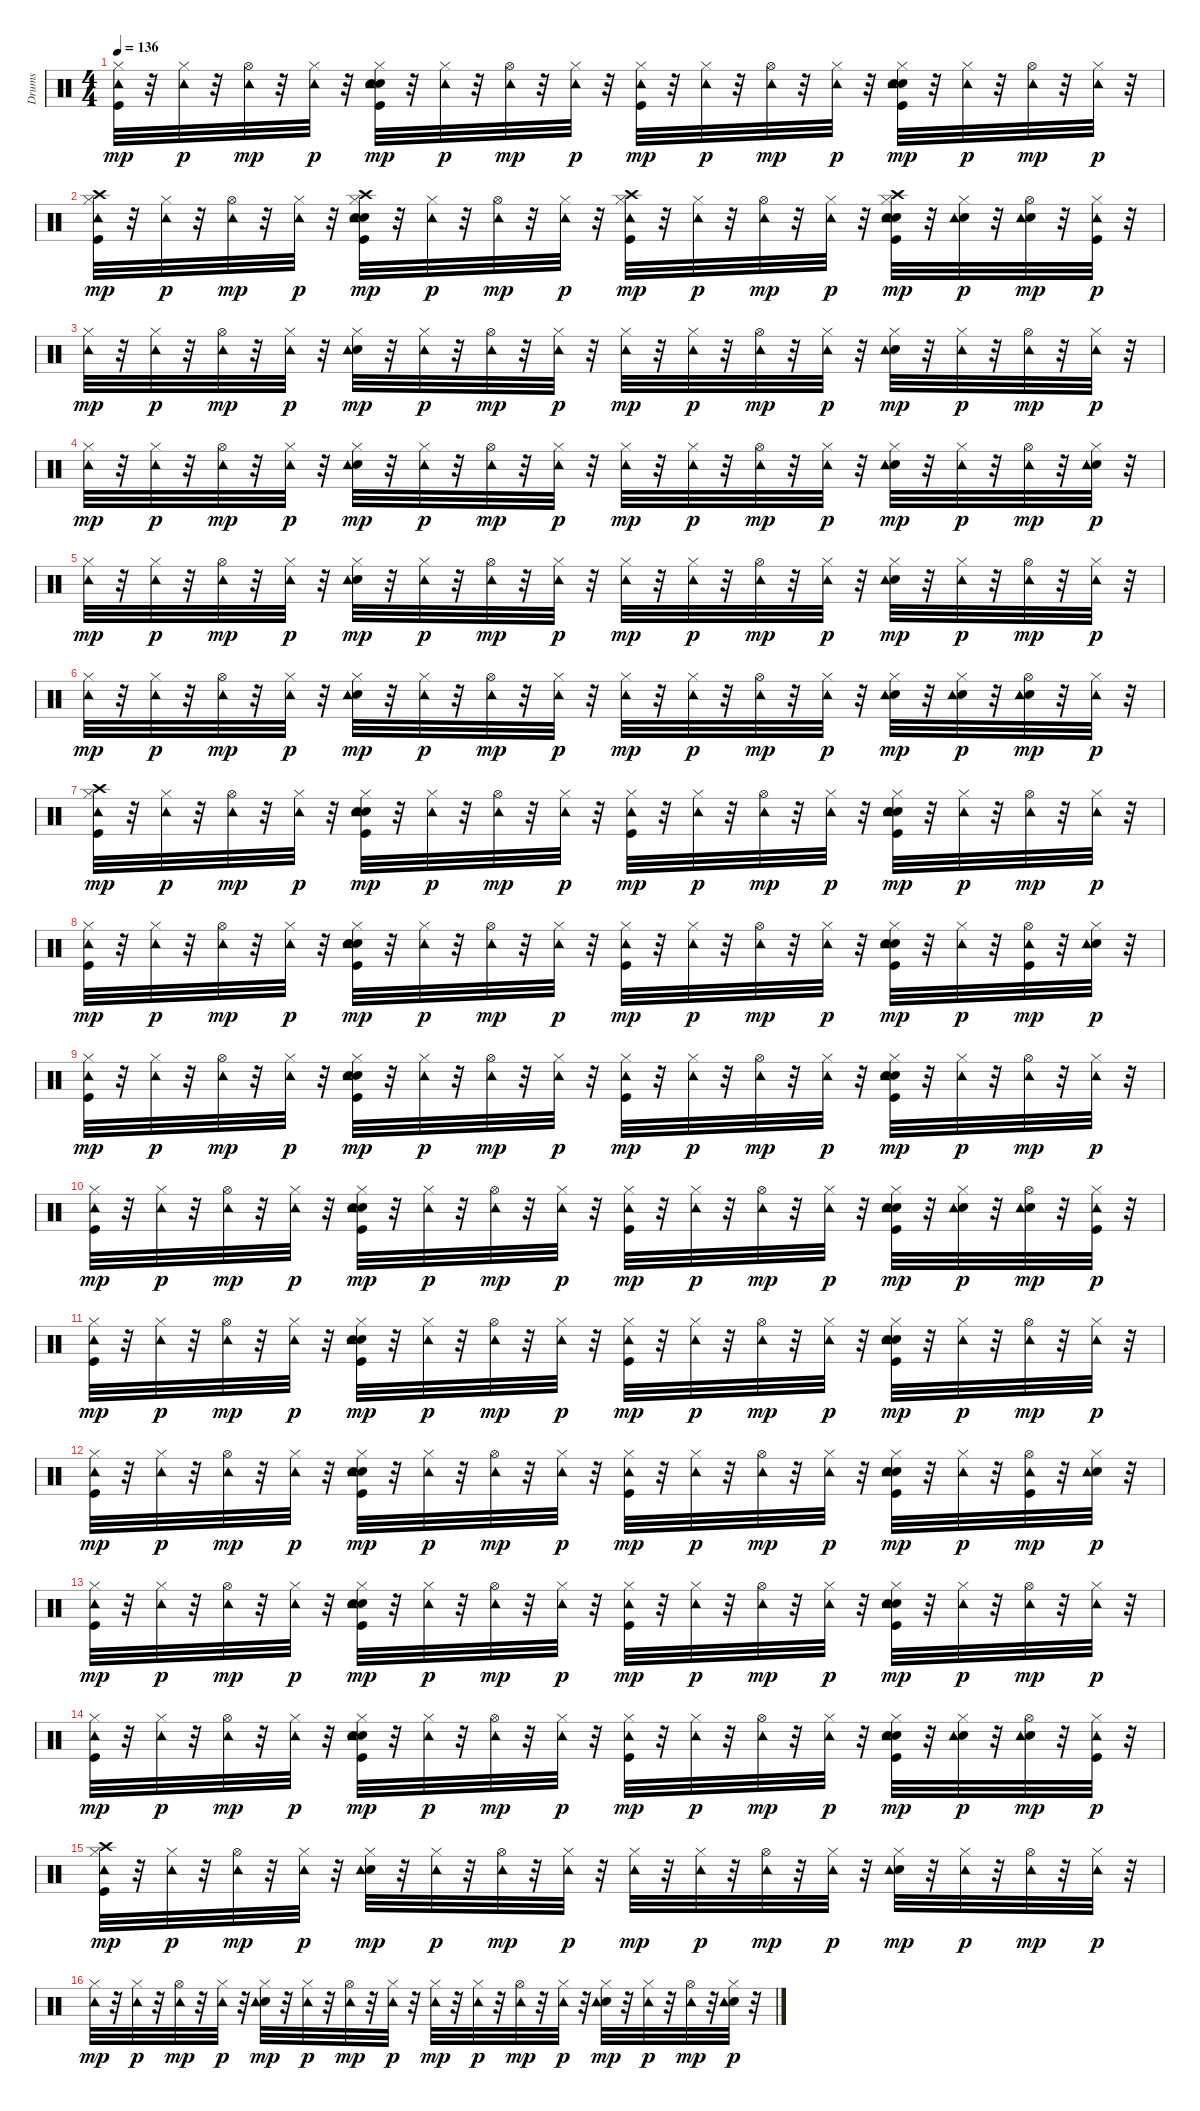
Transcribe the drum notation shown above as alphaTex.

\track ("Drums" "Drums") {instrument percussion}
\staff {score}
\articulation defaults
\ts (4 4)
\tempo 136
\clef neutral
\ks c
("Kick (hit)" "Hi-Hat (closed)" "Tambourine (hit)").32{dy mp} r.32 ("Hi-Hat (closed)" "Tambourine (hit)").32{dy p} r.32 ("Hi-Hat (open)" "Tambourine (hit)").32{dy mp} r.32 ("Hi-Hat (closed)" "Tambourine (hit)").32{dy p} r.32 ("Kick (hit)" "Snare (hit) 2" "Hand Clap (hit)" "Hi-Hat (closed)" "Tambourine (hit)").32{dy mp} r.32 ("Hi-Hat (closed)" "Tambourine (hit)").32{dy p} r.32 ("Hi-Hat (open)" "Tambourine (hit)").32{dy mp} r.32 ("Hi-Hat (closed)" "Tambourine (hit)").32{dy p} r.32 ("Kick (hit)" "Hi-Hat (closed)" "Tambourine (hit)").32{dy mp} r.32 ("Hi-Hat (closed)" "Tambourine (hit)").32{dy p} r.32 ("Hi-Hat (open)" "Tambourine (hit)").32{dy mp} r.32 ("Hi-Hat (closed)" "Tambourine (hit)").32{dy p} r.32 ("Kick (hit)" "Snare (hit) 2" "Hand Clap (hit)" "Hi-Hat (closed)" "Tambourine (hit)").32{dy mp} r.32 ("Hi-Hat (closed)" "Tambourine (hit)").32{dy p} r.32 ("Hi-Hat (open)" "Tambourine (hit)").32{dy mp} r.32 ("Hi-Hat (closed)" "Tambourine (hit)").32{dy p} r.32 |
("Kick (hit)" "Hi-Hat (closed)" "Crash high (hit)" "Tambourine (hit)").32{dy mp} r.32 ("Hi-Hat (closed)" "Tambourine (hit)").32{dy p} r.32 ("Hi-Hat (open)" "Tambourine (hit)").32{dy mp} r.32 ("Hi-Hat (closed)" "Tambourine (hit)").32{dy p} r.32 ("Kick (hit)" "Snare (hit) 2" "Hand Clap (hit)" "Hi-Hat (closed)" "Crash high (hit)" "Tambourine (hit)").32{dy mp} r.32 ("Hi-Hat (closed)" "Tambourine (hit)").32{dy p} r.32 ("Hi-Hat (open)" "Tambourine (hit)").32{dy mp} r.32 ("Hi-Hat (closed)" "Tambourine (hit)").32{dy p} r.32 ("Kick (hit)" "Hi-Hat (closed)" "Crash high (hit)" "Tambourine (hit)").32{dy mp} r.32 ("Hi-Hat (closed)" "Tambourine (hit)").32{dy p} r.32 ("Hi-Hat (open)" "Tambourine (hit)").32{dy mp} r.32 ("Hi-Hat (closed)" "Tambourine (hit)").32{dy p} r.32 ("Kick (hit)" "Snare (hit) 2" "Hand Clap (hit)" "Hi-Hat (closed)" "Crash high (hit)" "Tambourine (hit)").32{dy mp} r.32 ("Hand Clap (hit)" "Hi-Hat (closed)" "Tambourine (hit)").32{dy p} r.32 ("Hand Clap (hit)" "Hi-Hat (open)" "Tambourine (hit)").32{dy mp} r.32 ("Kick (hit)" "Hi-Hat (closed)" "Tambourine (hit)").32{dy p} r.32 |
("Hi-Hat (closed)" "Tambourine (hit)").32{dy mp} r.32 ("Hi-Hat (closed)" "Tambourine (hit)").32{dy p} r.32 ("Hi-Hat (open)" "Tambourine (hit)").32{dy mp} r.32 ("Hi-Hat (closed)" "Tambourine (hit)").32{dy p} r.32 ("Hand Clap (hit)" "Hi-Hat (closed)" "Tambourine (hit)").32{dy mp} r.32 ("Hi-Hat (closed)" "Tambourine (hit)").32{dy p} r.32 ("Hi-Hat (open)" "Tambourine (hit)").32{dy mp} r.32 ("Hi-Hat (closed)" "Tambourine (hit)").32{dy p} r.32 ("Hi-Hat (closed)" "Tambourine (hit)").32{dy mp} r.32 ("Hi-Hat (closed)" "Tambourine (hit)").32{dy p} r.32 ("Hi-Hat (open)" "Tambourine (hit)").32{dy mp} r.32 ("Hi-Hat (closed)" "Tambourine (hit)").32{dy p} r.32 ("Hand Clap (hit)" "Hi-Hat (closed)" "Tambourine (hit)").32{dy mp} r.32 ("Hi-Hat (closed)" "Tambourine (hit)").32{dy p} r.32 ("Hi-Hat (open)" "Tambourine (hit)").32{dy mp} r.32 ("Hi-Hat (closed)" "Tambourine (hit)").32{dy p} r.32 |
("Hi-Hat (closed)" "Tambourine (hit)").32{dy mp} r.32 ("Hi-Hat (closed)" "Tambourine (hit)").32{dy p} r.32 ("Hi-Hat (open)" "Tambourine (hit)").32{dy mp} r.32 ("Hi-Hat (closed)" "Tambourine (hit)").32{dy p} r.32 ("Hand Clap (hit)" "Hi-Hat (closed)" "Tambourine (hit)").32{dy mp} r.32 ("Hi-Hat (closed)" "Tambourine (hit)").32{dy p} r.32 ("Hi-Hat (open)" "Tambourine (hit)").32{dy mp} r.32 ("Hi-Hat (closed)" "Tambourine (hit)").32{dy p} r.32 ("Hi-Hat (closed)" "Tambourine (hit)").32{dy mp} r.32 ("Hi-Hat (closed)" "Tambourine (hit)").32{dy p} r.32 ("Hi-Hat (open)" "Tambourine (hit)").32{dy mp} r.32 ("Hi-Hat (closed)" "Tambourine (hit)").32{dy p} r.32 ("Hand Clap (hit)" "Hi-Hat (closed)" "Tambourine (hit)").32{dy mp} r.32 ("Hi-Hat (closed)" "Tambourine (hit)").32{dy p} r.32 ("Hi-Hat (open)" "Tambourine (hit)").32{dy mp} r.32 ("Hand Clap (hit)" "Hi-Hat (closed)" "Tambourine (hit)").32{dy p} r.32 |
("Hi-Hat (closed)" "Tambourine (hit)").32{dy mp} r.32 ("Hi-Hat (closed)" "Tambourine (hit)").32{dy p} r.32 ("Hi-Hat (open)" "Tambourine (hit)").32{dy mp} r.32 ("Hi-Hat (closed)" "Tambourine (hit)").32{dy p} r.32 ("Hand Clap (hit)" "Hi-Hat (closed)" "Tambourine (hit)").32{dy mp} r.32 ("Hi-Hat (closed)" "Tambourine (hit)").32{dy p} r.32 ("Hi-Hat (open)" "Tambourine (hit)").32{dy mp} r.32 ("Hi-Hat (closed)" "Tambourine (hit)").32{dy p} r.32 ("Hi-Hat (closed)" "Tambourine (hit)").32{dy mp} r.32 ("Hi-Hat (closed)" "Tambourine (hit)").32{dy p} r.32 ("Hi-Hat (open)" "Tambourine (hit)").32{dy mp} r.32 ("Hi-Hat (closed)" "Tambourine (hit)").32{dy p} r.32 ("Hand Clap (hit)" "Hi-Hat (closed)" "Tambourine (hit)").32{dy mp} r.32 ("Hi-Hat (closed)" "Tambourine (hit)").32{dy p} r.32 ("Hi-Hat (open)" "Tambourine (hit)").32{dy mp} r.32 ("Hi-Hat (closed)" "Tambourine (hit)").32{dy p} r.32 |
("Hi-Hat (closed)" "Tambourine (hit)").32{dy mp} r.32 ("Hi-Hat (closed)" "Tambourine (hit)").32{dy p} r.32 ("Hi-Hat (open)" "Tambourine (hit)").32{dy mp} r.32 ("Hi-Hat (closed)" "Tambourine (hit)").32{dy p} r.32 ("Hand Clap (hit)" "Hi-Hat (closed)" "Tambourine (hit)").32{dy mp} r.32 ("Hi-Hat (closed)" "Tambourine (hit)").32{dy p} r.32 ("Hi-Hat (open)" "Tambourine (hit)").32{dy mp} r.32 ("Hi-Hat (closed)" "Tambourine (hit)").32{dy p} r.32 ("Hi-Hat (closed)" "Tambourine (hit)").32{dy mp} r.32 ("Hi-Hat (closed)" "Tambourine (hit)").32{dy p} r.32 ("Hi-Hat (open)" "Tambourine (hit)").32{dy mp} r.32 ("Hi-Hat (closed)" "Tambourine (hit)").32{dy p} r.32 ("Hand Clap (hit)" "Hi-Hat (closed)" "Tambourine (hit)").32{dy mp} r.32 ("Hand Clap (hit)" "Hi-Hat (closed)" "Tambourine (hit)").32{dy p} r.32 ("Hand Clap (hit)" "Hi-Hat (open)" "Tambourine (hit)").32{dy mp} r.32 ("Hi-Hat (closed)" "Tambourine (hit)").32{dy p} r.32 |
("Kick (hit)" "Hi-Hat (closed)" "Crash high (hit)" "Tambourine (hit)").32{dy mp} r.32 ("Hi-Hat (closed)" "Tambourine (hit)").32{dy p} r.32 ("Hi-Hat (open)" "Tambourine (hit)").32{dy mp} r.32 ("Hi-Hat (closed)" "Tambourine (hit)").32{dy p} r.32 ("Kick (hit)" "Snare (hit) 2" "Hand Clap (hit)" "Hi-Hat (closed)" "Tambourine (hit)").32{dy mp} r.32 ("Hi-Hat (closed)" "Tambourine (hit)").32{dy p} r.32 ("Hi-Hat (open)" "Tambourine (hit)").32{dy mp} r.32 ("Hi-Hat (closed)" "Tambourine (hit)").32{dy p} r.32 ("Kick (hit)" "Hi-Hat (closed)" "Tambourine (hit)").32{dy mp} r.32 ("Hi-Hat (closed)" "Tambourine (hit)").32{dy p} r.32 ("Hi-Hat (open)" "Tambourine (hit)").32{dy mp} r.32 ("Hi-Hat (closed)" "Tambourine (hit)").32{dy p} r.32 ("Kick (hit)" "Snare (hit) 2" "Hand Clap (hit)" "Hi-Hat (closed)" "Tambourine (hit)").32{dy mp} r.32 ("Hi-Hat (closed)" "Tambourine (hit)").32{dy p} r.32 ("Hi-Hat (open)" "Tambourine (hit)").32{dy mp} r.32 ("Hi-Hat (closed)" "Tambourine (hit)").32{dy p} r.32 |
("Kick (hit)" "Hi-Hat (closed)" "Tambourine (hit)").32{dy mp} r.32 ("Hi-Hat (closed)" "Tambourine (hit)").32{dy p} r.32 ("Hi-Hat (open)" "Tambourine (hit)").32{dy mp} r.32 ("Hi-Hat (closed)" "Tambourine (hit)").32{dy p} r.32 ("Kick (hit)" "Snare (hit) 2" "Hand Clap (hit)" "Hi-Hat (closed)" "Tambourine (hit)").32{dy mp} r.32 ("Hi-Hat (closed)" "Tambourine (hit)").32{dy p} r.32 ("Hi-Hat (open)" "Tambourine (hit)").32{dy mp} r.32 ("Hi-Hat (closed)" "Tambourine (hit)").32{dy p} r.32 ("Kick (hit)" "Hi-Hat (closed)" "Tambourine (hit)").32{dy mp} r.32 ("Hi-Hat (closed)" "Tambourine (hit)").32{dy p} r.32 ("Hi-Hat (open)" "Tambourine (hit)").32{dy mp} r.32 ("Hi-Hat (closed)" "Tambourine (hit)").32{dy p} r.32 ("Kick (hit)" "Snare (hit) 2" "Hand Clap (hit)" "Hi-Hat (closed)" "Tambourine (hit)").32{dy mp} r.32 ("Hi-Hat (closed)" "Tambourine (hit)").32{dy p} r.32 ("Kick (hit)" "Hi-Hat (open)" "Tambourine (hit)").32{dy mp} r.32 ("Hand Clap (hit)" "Hi-Hat (closed)" "Tambourine (hit)").32{dy p} r.32 |
("Kick (hit)" "Hi-Hat (closed)" "Tambourine (hit)").32{dy mp} r.32 ("Hi-Hat (closed)" "Tambourine (hit)").32{dy p} r.32 ("Hi-Hat (open)" "Tambourine (hit)").32{dy mp} r.32 ("Hi-Hat (closed)" "Tambourine (hit)").32{dy p} r.32 ("Kick (hit)" "Snare (hit) 2" "Hand Clap (hit)" "Hi-Hat (closed)" "Tambourine (hit)").32{dy mp} r.32 ("Hi-Hat (closed)" "Tambourine (hit)").32{dy p} r.32 ("Hi-Hat (open)" "Tambourine (hit)").32{dy mp} r.32 ("Hi-Hat (closed)" "Tambourine (hit)").32{dy p} r.32 ("Kick (hit)" "Hi-Hat (closed)" "Tambourine (hit)").32{dy mp} r.32 ("Hi-Hat (closed)" "Tambourine (hit)").32{dy p} r.32 ("Hi-Hat (open)" "Tambourine (hit)").32{dy mp} r.32 ("Hi-Hat (closed)" "Tambourine (hit)").32{dy p} r.32 ("Kick (hit)" "Snare (hit) 2" "Hand Clap (hit)" "Hi-Hat (closed)" "Tambourine (hit)").32{dy mp} r.32 ("Hi-Hat (closed)" "Tambourine (hit)").32{dy p} r.32 ("Hi-Hat (open)" "Tambourine (hit)").32{dy mp} r.32 ("Hi-Hat (closed)" "Tambourine (hit)").32{dy p} r.32 |
("Kick (hit)" "Hi-Hat (closed)" "Tambourine (hit)").32{dy mp} r.32 ("Hi-Hat (closed)" "Tambourine (hit)").32{dy p} r.32 ("Hi-Hat (open)" "Tambourine (hit)").32{dy mp} r.32 ("Hi-Hat (closed)" "Tambourine (hit)").32{dy p} r.32 ("Kick (hit)" "Snare (hit) 2" "Hand Clap (hit)" "Hi-Hat (closed)" "Tambourine (hit)").32{dy mp} r.32 ("Hi-Hat (closed)" "Tambourine (hit)").32{dy p} r.32 ("Hi-Hat (open)" "Tambourine (hit)").32{dy mp} r.32 ("Hi-Hat (closed)" "Tambourine (hit)").32{dy p} r.32 ("Kick (hit)" "Hi-Hat (closed)" "Tambourine (hit)").32{dy mp} r.32 ("Hi-Hat (closed)" "Tambourine (hit)").32{dy p} r.32 ("Hi-Hat (open)" "Tambourine (hit)").32{dy mp} r.32 ("Hi-Hat (closed)" "Tambourine (hit)").32{dy p} r.32 ("Kick (hit)" "Snare (hit) 2" "Hand Clap (hit)" "Hi-Hat (closed)" "Tambourine (hit)").32{dy mp} r.32 ("Hand Clap (hit)" "Hi-Hat (closed)" "Tambourine (hit)").32{dy p} r.32 ("Hand Clap (hit)" "Hi-Hat (open)" "Tambourine (hit)").32{dy mp} r.32 ("Kick (hit)" "Hi-Hat (closed)" "Tambourine (hit)").32{dy p} r.32 |
("Kick (hit)" "Hi-Hat (closed)" "Tambourine (hit)").32{dy mp} r.32 ("Hi-Hat (closed)" "Tambourine (hit)").32{dy p} r.32 ("Hi-Hat (open)" "Tambourine (hit)").32{dy mp} r.32 ("Hi-Hat (closed)" "Tambourine (hit)").32{dy p} r.32 ("Kick (hit)" "Snare (hit) 2" "Hand Clap (hit)" "Hi-Hat (closed)" "Tambourine (hit)").32{dy mp} r.32 ("Hi-Hat (closed)" "Tambourine (hit)").32{dy p} r.32 ("Hi-Hat (open)" "Tambourine (hit)").32{dy mp} r.32 ("Hi-Hat (closed)" "Tambourine (hit)").32{dy p} r.32 ("Kick (hit)" "Hi-Hat (closed)" "Tambourine (hit)").32{dy mp} r.32 ("Hi-Hat (closed)" "Tambourine (hit)").32{dy p} r.32 ("Hi-Hat (open)" "Tambourine (hit)").32{dy mp} r.32 ("Hi-Hat (closed)" "Tambourine (hit)").32{dy p} r.32 ("Kick (hit)" "Snare (hit) 2" "Hand Clap (hit)" "Hi-Hat (closed)" "Tambourine (hit)").32{dy mp} r.32 ("Hi-Hat (closed)" "Tambourine (hit)").32{dy p} r.32 ("Hi-Hat (open)" "Tambourine (hit)").32{dy mp} r.32 ("Hi-Hat (closed)" "Tambourine (hit)").32{dy p} r.32 |
("Kick (hit)" "Hi-Hat (closed)" "Tambourine (hit)").32{dy mp} r.32 ("Hi-Hat (closed)" "Tambourine (hit)").32{dy p} r.32 ("Hi-Hat (open)" "Tambourine (hit)").32{dy mp} r.32 ("Hi-Hat (closed)" "Tambourine (hit)").32{dy p} r.32 ("Kick (hit)" "Snare (hit) 2" "Hand Clap (hit)" "Hi-Hat (closed)" "Tambourine (hit)").32{dy mp} r.32 ("Hi-Hat (closed)" "Tambourine (hit)").32{dy p} r.32 ("Hi-Hat (open)" "Tambourine (hit)").32{dy mp} r.32 ("Hi-Hat (closed)" "Tambourine (hit)").32{dy p} r.32 ("Kick (hit)" "Hi-Hat (closed)" "Tambourine (hit)").32{dy mp} r.32 ("Hi-Hat (closed)" "Tambourine (hit)").32{dy p} r.32 ("Hi-Hat (open)" "Tambourine (hit)").32{dy mp} r.32 ("Hi-Hat (closed)" "Tambourine (hit)").32{dy p} r.32 ("Kick (hit)" "Snare (hit) 2" "Hand Clap (hit)" "Hi-Hat (closed)" "Tambourine (hit)").32{dy mp} r.32 ("Hi-Hat (closed)" "Tambourine (hit)").32{dy p} r.32 ("Kick (hit)" "Hi-Hat (open)" "Tambourine (hit)").32{dy mp} r.32 ("Hand Clap (hit)" "Hi-Hat (closed)" "Tambourine (hit)").32{dy p} r.32 |
("Kick (hit)" "Hi-Hat (closed)" "Tambourine (hit)").32{dy mp} r.32 ("Hi-Hat (closed)" "Tambourine (hit)").32{dy p} r.32 ("Hi-Hat (open)" "Tambourine (hit)").32{dy mp} r.32 ("Hi-Hat (closed)" "Tambourine (hit)").32{dy p} r.32 ("Kick (hit)" "Snare (hit) 2" "Hand Clap (hit)" "Hi-Hat (closed)" "Tambourine (hit)").32{dy mp} r.32 ("Hi-Hat (closed)" "Tambourine (hit)").32{dy p} r.32 ("Hi-Hat (open)" "Tambourine (hit)").32{dy mp} r.32 ("Hi-Hat (closed)" "Tambourine (hit)").32{dy p} r.32 ("Kick (hit)" "Hi-Hat (closed)" "Tambourine (hit)").32{dy mp} r.32 ("Hi-Hat (closed)" "Tambourine (hit)").32{dy p} r.32 ("Hi-Hat (open)" "Tambourine (hit)").32{dy mp} r.32 ("Hi-Hat (closed)" "Tambourine (hit)").32{dy p} r.32 ("Kick (hit)" "Snare (hit) 2" "Hand Clap (hit)" "Hi-Hat (closed)" "Tambourine (hit)").32{dy mp} r.32 ("Hi-Hat (closed)" "Tambourine (hit)").32{dy p} r.32 ("Hi-Hat (open)" "Tambourine (hit)").32{dy mp} r.32 ("Hi-Hat (closed)" "Tambourine (hit)").32{dy p} r.32 |
("Kick (hit)" "Hi-Hat (closed)" "Tambourine (hit)").32{dy mp} r.32 ("Hi-Hat (closed)" "Tambourine (hit)").32{dy p} r.32 ("Hi-Hat (open)" "Tambourine (hit)").32{dy mp} r.32 ("Hi-Hat (closed)" "Tambourine (hit)").32{dy p} r.32 ("Kick (hit)" "Snare (hit) 2" "Hand Clap (hit)" "Hi-Hat (closed)" "Tambourine (hit)").32{dy mp} r.32 ("Hi-Hat (closed)" "Tambourine (hit)").32{dy p} r.32 ("Hi-Hat (open)" "Tambourine (hit)").32{dy mp} r.32 ("Hi-Hat (closed)" "Tambourine (hit)").32{dy p} r.32 ("Kick (hit)" "Hi-Hat (closed)" "Tambourine (hit)").32{dy mp} r.32 ("Hi-Hat (closed)" "Tambourine (hit)").32{dy p} r.32 ("Hi-Hat (open)" "Tambourine (hit)").32{dy mp} r.32 ("Hi-Hat (closed)" "Tambourine (hit)").32{dy p} r.32 ("Kick (hit)" "Snare (hit) 2" "Hand Clap (hit)" "Hi-Hat (closed)" "Tambourine (hit)").32{dy mp} r.32 ("Hand Clap (hit)" "Hi-Hat (closed)" "Tambourine (hit)").32{dy p} r.32 ("Hand Clap (hit)" "Hi-Hat (open)" "Tambourine (hit)").32{dy mp} r.32 ("Kick (hit)" "Hi-Hat (closed)" "Tambourine (hit)").32{dy p} r.32 |
("Kick (hit)" "Hi-Hat (closed)" "Crash high (hit)" "Tambourine (hit)").32{dy mp} r.32 ("Hi-Hat (closed)" "Tambourine (hit)").32{dy p} r.32 ("Hi-Hat (open)" "Tambourine (hit)").32{dy mp} r.32 ("Hi-Hat (closed)" "Tambourine (hit)").32{dy p} r.32 ("Hand Clap (hit)" "Hi-Hat (closed)" "Tambourine (hit)").32{dy mp} r.32 ("Hi-Hat (closed)" "Tambourine (hit)").32{dy p} r.32 ("Hi-Hat (open)" "Tambourine (hit)").32{dy mp} r.32 ("Hi-Hat (closed)" "Tambourine (hit)").32{dy p} r.32 ("Hi-Hat (closed)" "Tambourine (hit)").32{dy mp} r.32 ("Hi-Hat (closed)" "Tambourine (hit)").32{dy p} r.32 ("Hi-Hat (open)" "Tambourine (hit)").32{dy mp} r.32 ("Hi-Hat (closed)" "Tambourine (hit)").32{dy p} r.32 ("Hand Clap (hit)" "Hi-Hat (closed)" "Tambourine (hit)").32{dy mp} r.32 ("Hi-Hat (closed)" "Tambourine (hit)").32{dy p} r.32 ("Hi-Hat (open)" "Tambourine (hit)").32{dy mp} r.32 ("Hi-Hat (closed)" "Tambourine (hit)").32{dy p} r.32 |
("Hi-Hat (closed)" "Tambourine (hit)").32{dy mp} r.32 ("Hi-Hat (closed)" "Tambourine (hit)").32{dy p} r.32 ("Hi-Hat (open)" "Tambourine (hit)").32{dy mp} r.32 ("Hi-Hat (closed)" "Tambourine (hit)").32{dy p} r.32 ("Hand Clap (hit)" "Hi-Hat (closed)" "Tambourine (hit)").32{dy mp} r.32 ("Hi-Hat (closed)" "Tambourine (hit)").32{dy p} r.32 ("Hi-Hat (open)" "Tambourine (hit)").32{dy mp} r.32 ("Hi-Hat (closed)" "Tambourine (hit)").32{dy p} r.32 ("Hi-Hat (closed)" "Tambourine (hit)").32{dy mp} r.32 ("Hi-Hat (closed)" "Tambourine (hit)").32{dy p} r.32 ("Hi-Hat (open)" "Tambourine (hit)").32{dy mp} r.32 ("Hi-Hat (closed)" "Tambourine (hit)").32{dy p} r.32 ("Hand Clap (hit)" "Hi-Hat (closed)" "Tambourine (hit)").32{dy mp} r.32 ("Hi-Hat (closed)" "Tambourine (hit)").32{dy p} r.32 ("Hi-Hat (open)" "Tambourine (hit)").32{dy mp} r.32 ("Hand Clap (hit)" "Hi-Hat (closed)" "Tambourine (hit)").32{dy p} r.32
